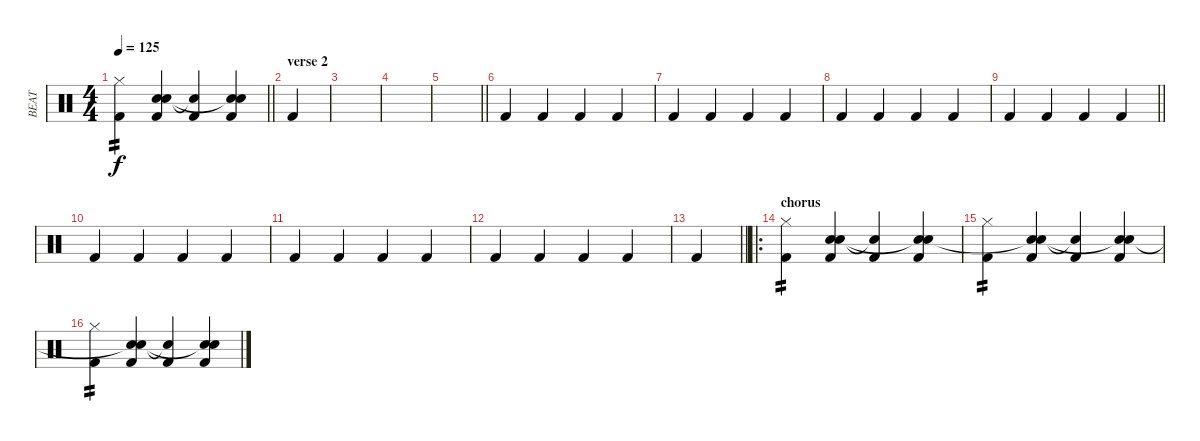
\track ("BEAT" "BEAT") {instrument percussion bank 2}
\staff {score}
\articulation defaults
\ts (4 4)
\tempo 125
\clef neutral
\barLineRight lightlight
\ks c
("Kick (hit) 2" "Hi-Hat (closed)").4{tp 2 dy f} ("Kick (hit) 2" "Electric Snare (hit)" "Snare (hit)"{t}).4 ("Kick (hit) 2" "Snare (hit)"{t}).4 ("Kick (hit) 2" "Electric Snare (hit)" "Snare (hit)"{t}).4 |
\section ("" "verse 2")
"Kick (hit) 2".4 |
|
|
\barLineRight lightlight
|
\section ("" "")
"Kick (hit) 2".4 "Kick (hit) 2".4 "Kick (hit) 2".4 "Kick (hit) 2".4 |
"Kick (hit) 2".4 "Kick (hit) 2".4 "Kick (hit) 2".4 "Kick (hit) 2".4 |
"Kick (hit) 2".4 "Kick (hit) 2".4 "Kick (hit) 2".4 "Kick (hit) 2".4 |
\barLineRight lightlight "Kick (hit) 2".4 "Kick (hit) 2".4 "Kick (hit) 2".4 "Kick (hit) 2".4
|
\section ("" "")
"Kick (hit) 2".4 "Kick (hit) 2".4 "Kick (hit) 2".4 "Kick (hit) 2".4 |
"Kick (hit) 2".4 "Kick (hit) 2".4 "Kick (hit) 2".4 "Kick (hit) 2".4 |
"Kick (hit) 2".4 "Kick (hit) 2".4 "Kick (hit) 2".4 "Kick (hit) 2".4 |
\barLineRight lightlight "Kick (hit) 2".4
|
\ro
\section ("" "chorus")
("Kick (hit) 2" "Hi-Hat (closed)").4{tp 2} ("Kick (hit) 2" "Electric Snare (hit)" "Snare (hit)").4 ("Kick (hit) 2" "Snare (hit)"{t}).4 ("Kick (hit) 2" "Electric Snare (hit)" "Snare (hit)"{t}).4 |
("Kick (hit) 2" "Hi-Hat (closed)").4{tp 2} ("Kick (hit) 2" "Electric Snare (hit)" "Snare (hit)"{t}).4 ("Kick (hit) 2" "Snare (hit)"{t}).4 ("Kick (hit) 2" "Electric Snare (hit)" "Snare (hit)"{t}).4 |
("Kick (hit) 2" "Hi-Hat (closed)").4{tp 2} ("Kick (hit) 2" "Electric Snare (hit)" "Snare (hit)"{t}).4 ("Kick (hit) 2" "Snare (hit)"{t}).4 ("Kick (hit) 2" "Electric Snare (hit)" "Snare (hit)"{t}).4
